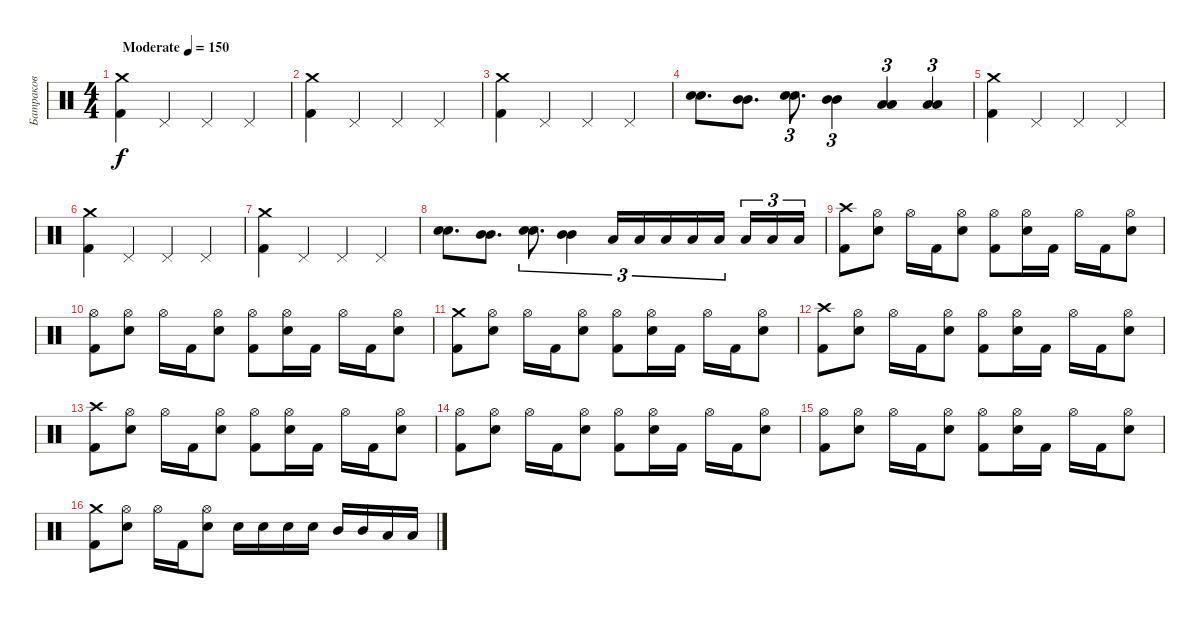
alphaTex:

\track ("Батраков" "Батраков") {instrument percussion}
\staff {score}
\articulation defaults
\ts (4 4)
\tempo (150 "Moderate")
\clef neutral
\ks c
("Kick (hit) 2" "Crash medium (hit)").4{dy f} "Pedal Hi-Hat (hit)".4 "Pedal Hi-Hat (hit)".4 "Pedal Hi-Hat (hit)".4 |
("Crash medium (hit)" "Kick (hit) 2").4 "Pedal Hi-Hat (hit)".4 "Pedal Hi-Hat (hit)".4 "Pedal Hi-Hat (hit)".4 |
("Crash medium (hit)" "Kick (hit) 2").4 "Pedal Hi-Hat (hit)".4 "Pedal Hi-Hat (hit)".4 "Pedal Hi-Hat (hit)".4 |
("Electric Snare (hit)" "Electric Snare (hit)").8{d} ("Mid Tom (hit)" "Mid Tom (hit)").8{d} ("Electric Snare (hit)" "Electric Snare (hit)").8{d tu (3 2)} ("Mid Tom (hit)" "Mid Tom (hit)").4{tu (3 2)} ("Low Tom (hit)" "Low Tom (hit)").4{tu (3 2)} ("Low Floor Tom (hit)" "Low Floor Tom (hit)").4{tu (3 2)} |
("Kick (hit) 2" "Crash medium (hit)").4 "Pedal Hi-Hat (hit)".4 "Pedal Hi-Hat (hit)".4 "Pedal Hi-Hat (hit)".4 |
("Crash medium (hit)" "Kick (hit) 2").4 "Pedal Hi-Hat (hit)".4 "Pedal Hi-Hat (hit)".4 "Pedal Hi-Hat (hit)".4 |
("Crash medium (hit)" "Kick (hit) 2").4 "Pedal Hi-Hat (hit)".4 "Pedal Hi-Hat (hit)".4 "Pedal Hi-Hat (hit)".4 |
("Electric Snare (hit)" "Electric Snare (hit)").8{d} ("Mid Tom (hit)" "Mid Tom (hit)").8{d} ("Electric Snare (hit)" "Electric Snare (hit)").8{d tu (3 2)} ("Mid Tom (hit)" "Mid Tom (hit)").4{tu (3 2)} "Low Tom (hit)".16{tu (3 2)} "Low Tom (hit)".16{tu (3 2)} "Low Tom (hit)".16{tu (3 2)} "Low Tom (hit)".16{tu (3 2)} "Low Tom (hit)".16{tu (3 2) beam splitsecondary} "Low Floor Tom (hit)".16{tu (3 2)} "Low Floor Tom (hit)".16{tu (3 2)} "Low Floor Tom (hit)".16{tu (3 2)} |
("Kick (hit) 2" "Crash high (hit)").8 ("Electric Snare (hit)" "Hi-Hat (open)").8 "Hi-Hat (open)".16 "Kick (hit) 2".16 ("Electric Snare (hit)" "Hi-Hat (open)").8 ("Kick (hit) 2" "Hi-Hat (open)").8 ("Electric Snare (hit)" "Hi-Hat (open)").16 "Kick (hit) 2".16 "Hi-Hat (open)".16 "Kick (hit) 2".16 ("Electric Snare (hit)" "Hi-Hat (open)").8 |
("Kick (hit) 2" "Hi-Hat (open)").8 ("Electric Snare (hit)" "Hi-Hat (open)").8 "Hi-Hat (open)".16 "Kick (hit) 2".16 ("Electric Snare (hit)" "Hi-Hat (open)").8 ("Kick (hit) 2" "Hi-Hat (open)").8 ("Electric Snare (hit)" "Hi-Hat (open)").16 "Kick (hit) 2".16 "Hi-Hat (open)".16 "Kick (hit) 2".16 ("Electric Snare (hit)" "Hi-Hat (open)").8 |
("Kick (hit) 2" "Crash medium (hit)").8 ("Electric Snare (hit)" "Hi-Hat (open)").8 "Hi-Hat (open)".16 "Kick (hit) 2".16 ("Electric Snare (hit)" "Hi-Hat (open)").8 ("Kick (hit) 2" "Hi-Hat (open)").8 ("Electric Snare (hit)" "Hi-Hat (open)").16 "Kick (hit) 2".16 "Hi-Hat (open)".16 "Kick (hit) 2".16 ("Electric Snare (hit)" "Hi-Hat (open)").8 |
("Kick (hit) 2" "Crash high (hit)").8 ("Electric Snare (hit)" "Hi-Hat (open)").8 "Hi-Hat (open)".16 "Kick (hit) 2".16 ("Electric Snare (hit)" "Hi-Hat (open)").8 ("Kick (hit) 2" "Hi-Hat (open)").8 ("Electric Snare (hit)" "Hi-Hat (open)").16 "Kick (hit) 2".16 "Hi-Hat (open)".16 "Kick (hit) 2".16 ("Electric Snare (hit)" "Hi-Hat (open)").8 |
("Kick (hit) 2" "Crash high (hit)").8 ("Electric Snare (hit)" "Hi-Hat (open)").8 "Hi-Hat (open)".16 "Kick (hit) 2".16 ("Electric Snare (hit)" "Hi-Hat (open)").8 ("Kick (hit) 2" "Hi-Hat (open)").8 ("Electric Snare (hit)" "Hi-Hat (open)").16 "Kick (hit) 2".16 "Hi-Hat (open)".16 "Kick (hit) 2".16 ("Electric Snare (hit)" "Hi-Hat (open)").8 |
("Kick (hit) 2" "Hi-Hat (open)").8 ("Electric Snare (hit)" "Hi-Hat (open)").8 "Hi-Hat (open)".16 "Kick (hit) 2".16 ("Electric Snare (hit)" "Hi-Hat (open)").8 ("Kick (hit) 2" "Hi-Hat (open)").8 ("Electric Snare (hit)" "Hi-Hat (open)").16 "Kick (hit) 2".16 "Hi-Hat (open)".16 "Kick (hit) 2".16 ("Electric Snare (hit)" "Hi-Hat (open)").8 |
("Kick (hit) 2" "Hi-Hat (open)").8 ("Electric Snare (hit)" "Hi-Hat (open)").8 "Hi-Hat (open)".16 "Kick (hit) 2".16 ("Electric Snare (hit)" "Hi-Hat (open)").8 ("Kick (hit) 2" "Hi-Hat (open)").8 ("Electric Snare (hit)" "Hi-Hat (open)").16 "Kick (hit) 2".16 "Hi-Hat (open)".16 "Kick (hit) 2".16 ("Electric Snare (hit)" "Hi-Hat (open)").8 |
("Kick (hit) 2" "Crash medium (hit)").8 ("Electric Snare (hit)" "Hi-Hat (open)").8 "Hi-Hat (open)".16 "Kick (hit) 2".16 ("Electric Snare (hit)" "Hi-Hat (open)").8 "Electric Snare (hit)".16 "Electric Snare (hit)".16 "Electric Snare (hit)".16 "Electric Snare (hit)".16 "Mid Tom (hit)".16 "Mid Tom (hit)".16 "Low Tom (hit)".16 "Low Tom (hit)".16
